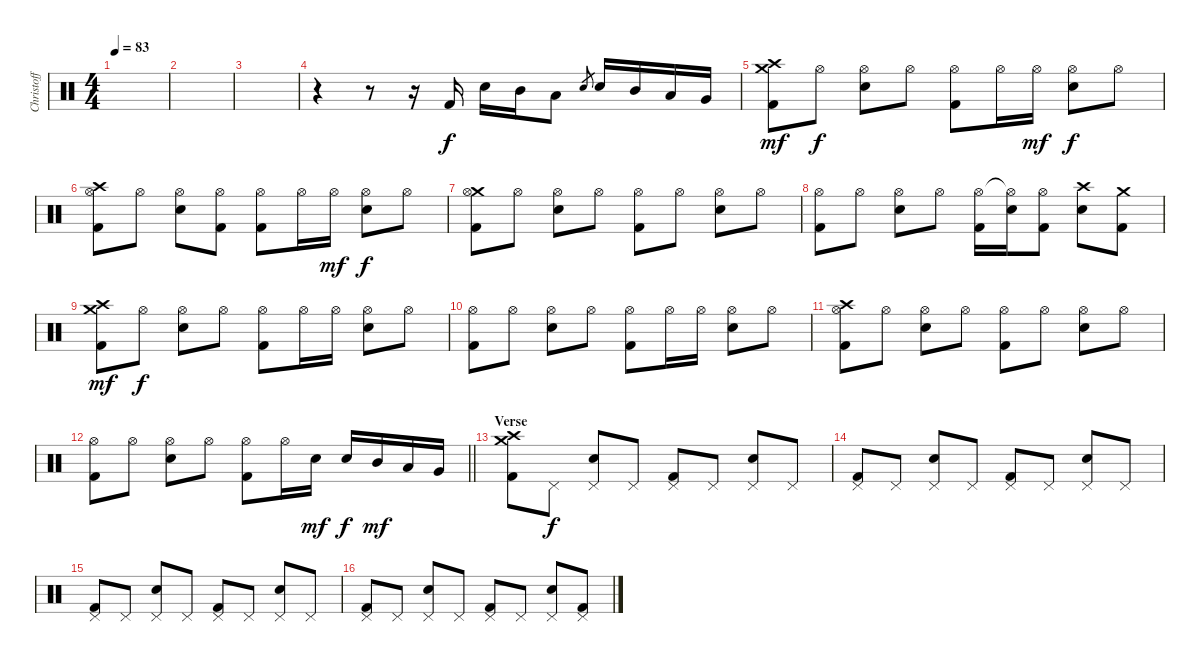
\track ("Christoff" "Christoff") {instrument percussion}
\staff {score}
\articulation defaults
\ts (4 4)
\tempo 83
\clef neutral
\ks c
|
|
|
r.4 r.8 r.16 "Kick (hit) 2".16 "Electric Snare (hit)".16 "Mid Tom (hit)".16 "Low Tom (hit)".8 "Electric Snare (hit)".8{gr} "Electric Snare (hit)".16 "Mid Tom (hit)".16 "Low Tom (hit)".16 "Very Low Tom (hit)".16 |
("Crash medium (hit)" "Crash high (hit)" "Kick (hit) 2").8{dy mf} "Hi-Hat (open)".8{dy f} ("Hi-Hat (open)" "Electric Snare (hit)").8 "Hi-Hat (open)".8 ("Hi-Hat (open)" "Kick (hit) 2").8 "Hi-Hat (open)".16 "Hi-Hat (open)".16{dy mf} ("Hi-Hat (open)" "Electric Snare (hit)").8{dy f} "Hi-Hat (open)".8 |
("Crash high (hit)" "Hi-Hat (open)" "Kick (hit) 2").8 "Hi-Hat (open)".8 ("Hi-Hat (open)" "Electric Snare (hit)").8 ("Hi-Hat (open)" "Kick (hit) 2").8 ("Hi-Hat (open)" "Kick (hit) 2").8 "Hi-Hat (open)".16 "Hi-Hat (open)".16{dy mf} ("Hi-Hat (open)" "Electric Snare (hit)").8{dy f} "Hi-Hat (open)".8 |
("Crash medium (hit)" "Hi-Hat (open)" "Kick (hit) 2").8 "Hi-Hat (open)".8 ("Hi-Hat (open)" "Electric Snare (hit)").8 "Hi-Hat (open)".8 ("Hi-Hat (open)" "Kick (hit) 2").8 "Hi-Hat (open)".8 ("Hi-Hat (open)" "Electric Snare (hit)").8 "Hi-Hat (open)".8 |
("Hi-Hat (open)" "Kick (hit) 2").8 "Hi-Hat (open)".8 ("Hi-Hat (open)" "Electric Snare (hit)").8 "Hi-Hat (open)".8 ("Hi-Hat (open)" "Kick (hit) 2").16 ("Hi-Hat (open)"{t} "Electric Snare (hit)").16 ("Hi-Hat (open)" "Kick (hit) 2").8 ("Crash high (hit)" "Electric Snare (hit)").8 ("Crash medium (hit)" "Kick (hit) 2").8 |
("Crash medium (hit)" "Crash high (hit)" "Kick (hit) 2").8{dy mf} "Hi-Hat (open)".8{dy f} ("Hi-Hat (open)" "Electric Snare (hit)").8 "Hi-Hat (open)".8 ("Hi-Hat (open)" "Kick (hit) 2").8 "Hi-Hat (open)".16 "Hi-Hat (open)".16 ("Hi-Hat (open)" "Electric Snare (hit)").8 "Hi-Hat (open)".8 |
("Hi-Hat (open)" "Kick (hit) 2").8 "Hi-Hat (open)".8 ("Hi-Hat (open)" "Electric Snare (hit)").8 "Hi-Hat (open)".8 ("Hi-Hat (open)" "Kick (hit) 2").8 "Hi-Hat (open)".16 "Hi-Hat (open)".16 ("Hi-Hat (open)" "Electric Snare (hit)").8 "Hi-Hat (open)".8 |
("Crash high (hit)" "Hi-Hat (open)" "Kick (hit) 2").8 "Hi-Hat (open)".8 ("Hi-Hat (open)" "Electric Snare (hit)").8 "Hi-Hat (open)".8 ("Hi-Hat (open)" "Kick (hit) 2").8 "Hi-Hat (open)".8 ("Hi-Hat (open)" "Electric Snare (hit)").8 "Hi-Hat (open)".8 |
\barLineRight lightlight
("Hi-Hat (open)" "Kick (hit) 2").8 "Hi-Hat (open)".8 ("Hi-Hat (open)" "Electric Snare (hit)").8 "Hi-Hat (open)".8 ("Hi-Hat (open)" "Kick (hit) 2").8 "Hi-Hat (open)".16 "Electric Snare (hit)".16{dy mf} "Electric Snare (hit)".16{dy f} "Mid Tom (hit)".16{dy mf} "Low Tom (hit)".16 "Very Low Tom (hit)".16 |
\section ("" "Verse")
("Crash medium (hit)" "Crash high (hit)" "Kick (hit) 2").8 "Pedal Hi-Hat (hit)".8{dy f} ("Pedal Hi-Hat (hit)" "Electric Snare (hit)").8 "Pedal Hi-Hat (hit)".8 ("Pedal Hi-Hat (hit)" "Kick (hit) 2").8 "Pedal Hi-Hat (hit)".8 ("Pedal Hi-Hat (hit)" "Electric Snare (hit)").8 "Pedal Hi-Hat (hit)".8 |
("Pedal Hi-Hat (hit)" "Kick (hit) 2").8 "Pedal Hi-Hat (hit)".8 ("Pedal Hi-Hat (hit)" "Electric Snare (hit)").8 "Pedal Hi-Hat (hit)".8 ("Pedal Hi-Hat (hit)" "Kick (hit) 2").8 "Pedal Hi-Hat (hit)".8 ("Pedal Hi-Hat (hit)" "Electric Snare (hit)").8 "Pedal Hi-Hat (hit)".8 |
("Pedal Hi-Hat (hit)" "Kick (hit) 2").8 "Pedal Hi-Hat (hit)".8 ("Pedal Hi-Hat (hit)" "Electric Snare (hit)").8 "Pedal Hi-Hat (hit)".8 ("Pedal Hi-Hat (hit)" "Kick (hit) 2").8 "Pedal Hi-Hat (hit)".8 ("Pedal Hi-Hat (hit)" "Electric Snare (hit)").8 "Pedal Hi-Hat (hit)".8 |
("Pedal Hi-Hat (hit)" "Kick (hit) 2").8 "Pedal Hi-Hat (hit)".8 ("Pedal Hi-Hat (hit)" "Electric Snare (hit)").8 "Pedal Hi-Hat (hit)".8 ("Pedal Hi-Hat (hit)" "Kick (hit) 2").8 "Pedal Hi-Hat (hit)".8 ("Pedal Hi-Hat (hit)" "Electric Snare (hit)").8 ("Pedal Hi-Hat (hit)" "Kick (hit) 2").8
